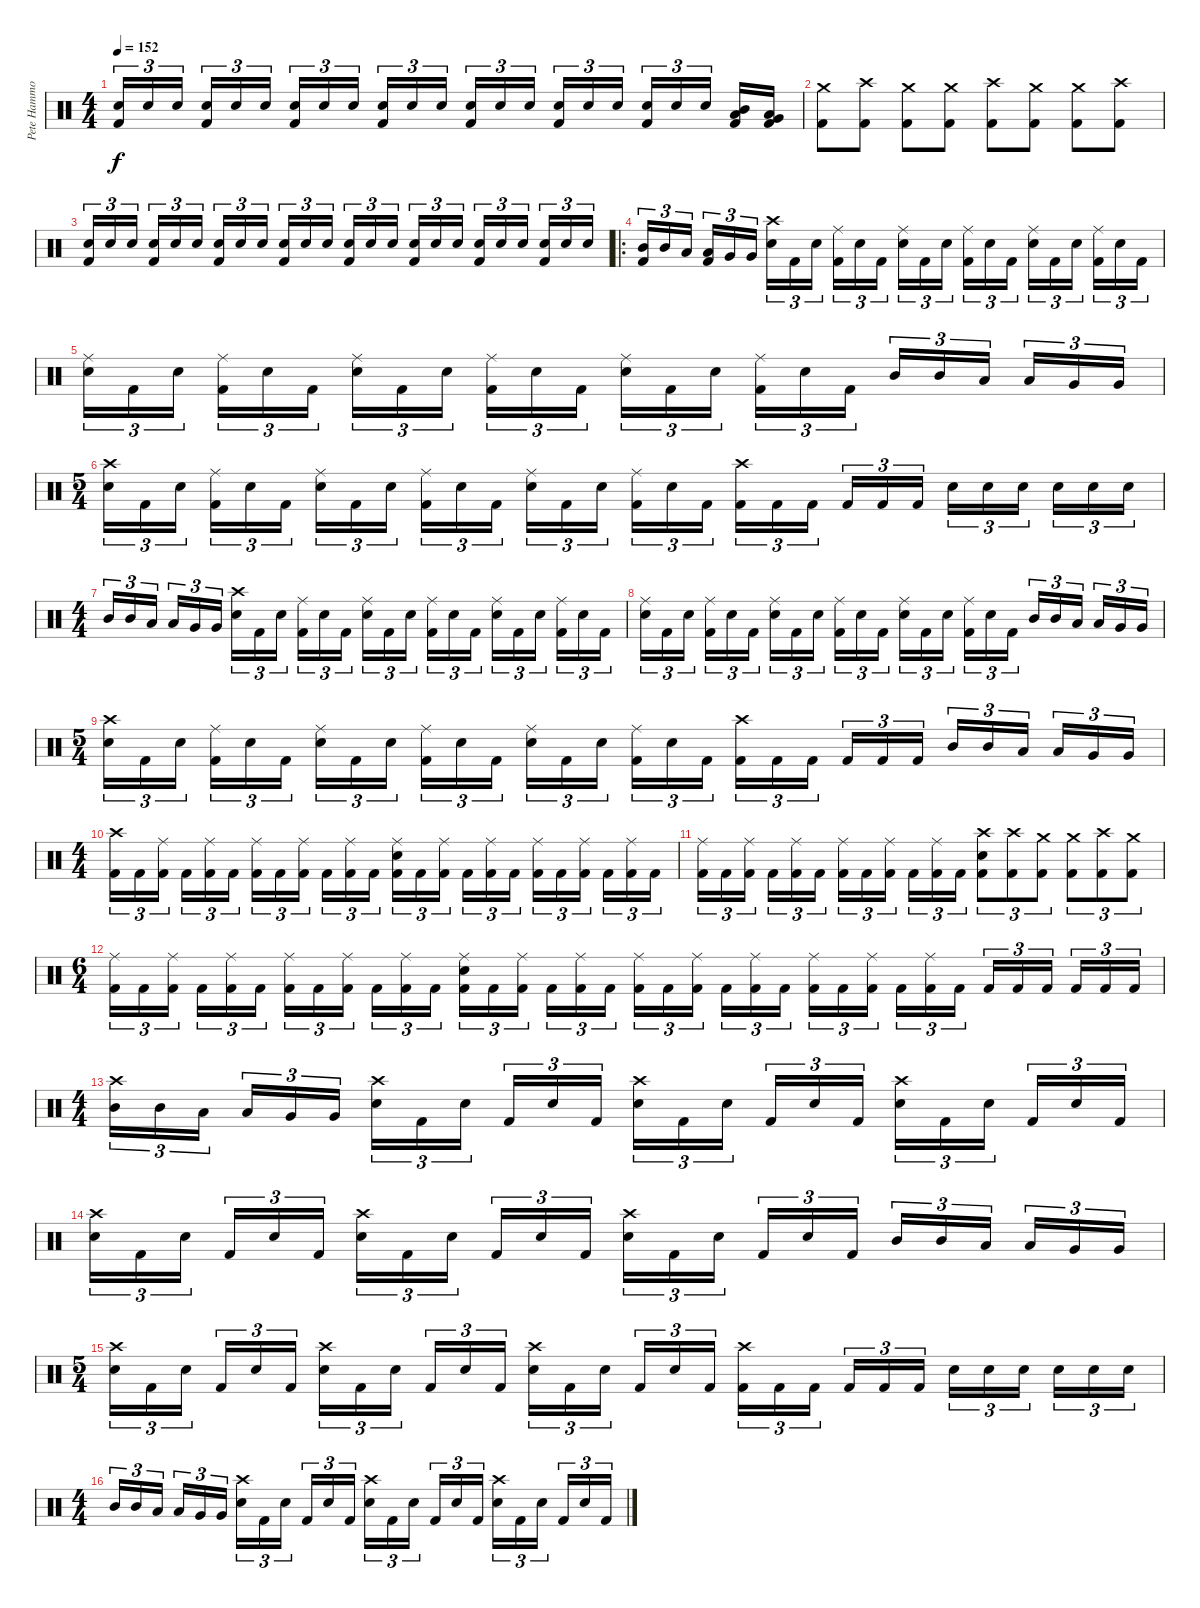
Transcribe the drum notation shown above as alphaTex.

\track ("Pete Hammoura" "Pete Hammo") {instrument percussion}
\staff {score}
\articulation defaults
\ts (4 4)
\tempo 152
\clef neutral
\ks c
("Electric Snare (hit)" "Kick (hit) 2").16{tu (3 2) dy f} "Electric Snare (hit)".16{tu (3 2)} "Electric Snare (hit)".16{tu (3 2)} ("Electric Snare (hit)" "Kick (hit) 2").16{tu (3 2)} "Electric Snare (hit)".16{tu (3 2)} "Electric Snare (hit)".16{tu (3 2)} ("Electric Snare (hit)" "Kick (hit) 2").16{tu (3 2)} "Electric Snare (hit)".16{tu (3 2)} "Electric Snare (hit)".16{tu (3 2)} ("Electric Snare (hit)" "Kick (hit) 2").16{tu (3 2)} "Electric Snare (hit)".16{tu (3 2)} "Electric Snare (hit)".16{tu (3 2)} ("Electric Snare (hit)" "Kick (hit) 2").16{tu (3 2)} "Electric Snare (hit)".16{tu (3 2)} "Electric Snare (hit)".16{tu (3 2)} ("Electric Snare (hit)" "Kick (hit) 2").16{tu (3 2)} "Electric Snare (hit)".16{tu (3 2)} "Electric Snare (hit)".16{tu (3 2)} ("Electric Snare (hit)" "Kick (hit) 2").16{tu (3 2)} "Electric Snare (hit)".16{tu (3 2)} "Electric Snare (hit)".16{tu (3 2)} ("Mid Tom (hit)" "Low Tom (hit)" "Kick (hit) 2").16 ("Low Tom (hit)" "Very Low Tom (hit)" "Kick (hit) 2").16 |
("Crash medium (hit)" "Kick (hit) 2").8 ("Crash high (hit)" "Kick (hit) 2").8 ("Crash medium (hit)" "Kick (hit) 2").8 ("Crash medium (hit)" "Kick (hit) 2").8 ("Crash high (hit)" "Kick (hit) 2").8 ("Crash medium (hit)" "Kick (hit) 2").8 ("Crash medium (hit)" "Kick (hit) 2").8 ("Crash high (hit)" "Kick (hit) 2").8 |
("Electric Snare (hit)" "Kick (hit) 2").16{tu (3 2)} "Electric Snare (hit)".16{tu (3 2)} "Electric Snare (hit)".16{tu (3 2)} ("Electric Snare (hit)" "Kick (hit) 2").16{tu (3 2)} "Electric Snare (hit)".16{tu (3 2)} "Electric Snare (hit)".16{tu (3 2)} ("Electric Snare (hit)" "Kick (hit) 2").16{tu (3 2)} "Electric Snare (hit)".16{tu (3 2)} "Electric Snare (hit)".16{tu (3 2)} ("Electric Snare (hit)" "Kick (hit) 2").16{tu (3 2)} "Electric Snare (hit)".16{tu (3 2)} "Electric Snare (hit)".16{tu (3 2)} ("Electric Snare (hit)" "Kick (hit) 2").16{tu (3 2)} "Electric Snare (hit)".16{tu (3 2)} "Electric Snare (hit)".16{tu (3 2)} ("Electric Snare (hit)" "Kick (hit) 2").16{tu (3 2)} "Electric Snare (hit)".16{tu (3 2)} "Electric Snare (hit)".16{tu (3 2)} ("Electric Snare (hit)" "Kick (hit) 2").16{tu (3 2)} "Electric Snare (hit)".16{tu (3 2)} "Electric Snare (hit)".16{tu (3 2)} ("Electric Snare (hit)" "Kick (hit) 2").16{tu (3 2)} "Electric Snare (hit)".16{tu (3 2)} "Electric Snare (hit)".16{tu (3 2)} |
\ro
("Mid Tom (hit)" "Kick (hit) 2").16{tu (3 2)} "Mid Tom (hit)".16{tu (3 2)} "Low Tom (hit)".16{tu (3 2)} ("Low Tom (hit)" "Kick (hit) 2").16{tu (3 2)} "Very Low Tom (hit)".16{tu (3 2)} "Very Low Tom (hit)".16{tu (3 2)} ("Crash high (hit)" "Electric Snare (hit)").16{tu (3 2)} "Kick (hit) 2".16{tu (3 2)} "Electric Snare (hit)".16{tu (3 2)} ("Ride (middle)" "Kick (hit) 2").16{tu (3 2)} "Electric Snare (hit)".16{tu (3 2)} "Kick (hit) 2".16{tu (3 2)} ("Ride (middle)" "Electric Snare (hit)").16{tu (3 2)} "Kick (hit) 2".16{tu (3 2)} "Electric Snare (hit)".16{tu (3 2)} ("Ride (middle)" "Kick (hit) 2").16{tu (3 2)} "Electric Snare (hit)".16{tu (3 2)} "Kick (hit) 2".16{tu (3 2)} ("Ride (middle)" "Electric Snare (hit)").16{tu (3 2)} "Kick (hit) 2".16{tu (3 2)} "Electric Snare (hit)".16{tu (3 2)} ("Ride (middle)" "Kick (hit) 2").16{tu (3 2)} "Electric Snare (hit)".16{tu (3 2)} "Kick (hit) 2".16{tu (3 2)} |
("Ride (middle)" "Electric Snare (hit)").16{tu (3 2)} "Kick (hit) 2".16{tu (3 2)} "Electric Snare (hit)".16{tu (3 2)} ("Ride (middle)" "Kick (hit) 2").16{tu (3 2)} "Electric Snare (hit)".16{tu (3 2)} "Kick (hit) 2".16{tu (3 2)} ("Ride (middle)" "Electric Snare (hit)").16{tu (3 2)} "Kick (hit) 2".16{tu (3 2)} "Electric Snare (hit)".16{tu (3 2)} ("Ride (middle)" "Kick (hit) 2").16{tu (3 2)} "Electric Snare (hit)".16{tu (3 2)} "Kick (hit) 2".16{tu (3 2)} ("Ride (middle)" "Electric Snare (hit)").16{tu (3 2)} "Kick (hit) 2".16{tu (3 2)} "Electric Snare (hit)".16{tu (3 2)} ("Ride (middle)" "Kick (hit) 2").16{tu (3 2)} "Electric Snare (hit)".16{tu (3 2)} "Kick (hit) 2".16{tu (3 2)} "Mid Tom (hit)".16{tu (3 2)} "Mid Tom (hit)".16{tu (3 2)} "Low Tom (hit)".16{tu (3 2)} "Low Tom (hit)".16{tu (3 2)} "Very Low Tom (hit)".16{tu (3 2)} "Very Low Tom (hit)".16{tu (3 2)} |
\ts (5 4)
("Crash high (hit)" "Electric Snare (hit)").16{tu (3 2)} "Kick (hit) 2".16{tu (3 2)} "Electric Snare (hit)".16{tu (3 2)} ("Ride (middle)" "Kick (hit) 2").16{tu (3 2)} "Electric Snare (hit)".16{tu (3 2)} "Kick (hit) 2".16{tu (3 2)} ("Ride (middle)" "Electric Snare (hit)").16{tu (3 2)} "Kick (hit) 2".16{tu (3 2)} "Electric Snare (hit)".16{tu (3 2)} ("Ride (middle)" "Kick (hit) 2").16{tu (3 2)} "Electric Snare (hit)".16{tu (3 2)} "Kick (hit) 2".16{tu (3 2)} ("Ride (middle)" "Electric Snare (hit)").16{tu (3 2)} "Kick (hit) 2".16{tu (3 2)} "Electric Snare (hit)".16{tu (3 2)} ("Ride (middle)" "Kick (hit) 2").16{tu (3 2)} "Electric Snare (hit)".16{tu (3 2)} "Kick (hit) 2".16{tu (3 2)} ("Crash high (hit)" "Kick (hit) 2").16{tu (3 2)} "Kick (hit) 2".16{tu (3 2)} "Kick (hit) 2".16{tu (3 2)} "Kick (hit) 2".16{tu (3 2)} "Kick (hit) 2".16{tu (3 2)} "Kick (hit) 2".16{tu (3 2)} "Electric Snare (hit)".16{tu (3 2)} "Electric Snare (hit)".16{tu (3 2)} "Electric Snare (hit)".16{tu (3 2)} "Electric Snare (hit)".16{tu (3 2)} "Electric Snare (hit)".16{tu (3 2)} "Electric Snare (hit)".16{tu (3 2)} |
\ts (4 4)
"Mid Tom (hit)".16{tu (3 2)} "Mid Tom (hit)".16{tu (3 2)} "Low Tom (hit)".16{tu (3 2)} "Low Tom (hit)".16{tu (3 2)} "Very Low Tom (hit)".16{tu (3 2)} "Very Low Tom (hit)".16{tu (3 2)} ("Crash high (hit)" "Electric Snare (hit)").16{tu (3 2)} "Kick (hit) 2".16{tu (3 2)} "Electric Snare (hit)".16{tu (3 2)} ("Ride (middle)" "Kick (hit) 2").16{tu (3 2)} "Electric Snare (hit)".16{tu (3 2)} "Kick (hit) 2".16{tu (3 2)} ("Ride (middle)" "Electric Snare (hit)").16{tu (3 2)} "Kick (hit) 2".16{tu (3 2)} "Electric Snare (hit)".16{tu (3 2)} ("Ride (middle)" "Kick (hit) 2").16{tu (3 2)} "Electric Snare (hit)".16{tu (3 2)} "Kick (hit) 2".16{tu (3 2)} ("Ride (middle)" "Electric Snare (hit)").16{tu (3 2)} "Kick (hit) 2".16{tu (3 2)} "Electric Snare (hit)".16{tu (3 2)} ("Ride (middle)" "Kick (hit) 2").16{tu (3 2)} "Electric Snare (hit)".16{tu (3 2)} "Kick (hit) 2".16{tu (3 2)} |
("Ride (middle)" "Electric Snare (hit)").16{tu (3 2)} "Kick (hit) 2".16{tu (3 2)} "Electric Snare (hit)".16{tu (3 2)} ("Ride (middle)" "Kick (hit) 2").16{tu (3 2)} "Electric Snare (hit)".16{tu (3 2)} "Kick (hit) 2".16{tu (3 2)} ("Ride (middle)" "Electric Snare (hit)").16{tu (3 2)} "Kick (hit) 2".16{tu (3 2)} "Electric Snare (hit)".16{tu (3 2)} ("Ride (middle)" "Kick (hit) 2").16{tu (3 2)} "Electric Snare (hit)".16{tu (3 2)} "Kick (hit) 2".16{tu (3 2)} ("Ride (middle)" "Electric Snare (hit)").16{tu (3 2)} "Kick (hit) 2".16{tu (3 2)} "Electric Snare (hit)".16{tu (3 2)} ("Ride (middle)" "Kick (hit) 2").16{tu (3 2)} "Electric Snare (hit)".16{tu (3 2)} "Kick (hit) 2".16{tu (3 2)} "Mid Tom (hit)".16{tu (3 2)} "Mid Tom (hit)".16{tu (3 2)} "Low Tom (hit)".16{tu (3 2)} "Low Tom (hit)".16{tu (3 2)} "Very Low Tom (hit)".16{tu (3 2)} "Very Low Tom (hit)".16{tu (3 2)} |
\ts (5 4)
("Crash high (hit)" "Electric Snare (hit)").16{tu (3 2)} "Kick (hit) 2".16{tu (3 2)} "Electric Snare (hit)".16{tu (3 2)} ("Ride (middle)" "Kick (hit) 2").16{tu (3 2)} "Electric Snare (hit)".16{tu (3 2)} "Kick (hit) 2".16{tu (3 2)} ("Ride (middle)" "Electric Snare (hit)").16{tu (3 2)} "Kick (hit) 2".16{tu (3 2)} "Electric Snare (hit)".16{tu (3 2)} ("Ride (middle)" "Kick (hit) 2").16{tu (3 2)} "Electric Snare (hit)".16{tu (3 2)} "Kick (hit) 2".16{tu (3 2)} ("Ride (middle)" "Electric Snare (hit)").16{tu (3 2)} "Kick (hit) 2".16{tu (3 2)} "Electric Snare (hit)".16{tu (3 2)} ("Ride (middle)" "Kick (hit) 2").16{tu (3 2)} "Electric Snare (hit)".16{tu (3 2)} "Kick (hit) 2".16{tu (3 2)} ("Crash high (hit)" "Kick (hit) 2").16{tu (3 2)} "Kick (hit) 2".16{tu (3 2)} "Kick (hit) 2".16{tu (3 2)} "Kick (hit) 2".16{tu (3 2)} "Kick (hit) 2".16{tu (3 2)} "Kick (hit) 2".16{tu (3 2)} "Mid Tom (hit)".16{tu (3 2)} "Mid Tom (hit)".16{tu (3 2)} "Low Tom (hit)".16{tu (3 2)} "Low Tom (hit)".16{tu (3 2)} "Very Low Tom (hit)".16{tu (3 2)} "Very Low Tom (hit)".16{tu (3 2)} |
\ts (4 4)
("Crash high (hit)" "Kick (hit) 2").16{tu (3 2)} "Kick (hit) 2".16{tu (3 2)} ("Ride (middle)" "Kick (hit) 2").16{tu (3 2)} "Kick (hit) 2".16{tu (3 2)} ("Ride (middle)" "Kick (hit) 2").16{tu (3 2)} "Kick (hit) 2".16{tu (3 2)} ("Ride (middle)" "Kick (hit) 2").16{tu (3 2)} "Kick (hit) 2".16{tu (3 2)} ("Ride (middle)" "Kick (hit) 2").16{tu (3 2)} "Kick (hit) 2".16{tu (3 2)} ("Ride (middle)" "Kick (hit) 2").16{tu (3 2)} "Kick (hit) 2".16{tu (3 2)} ("Ride (middle)" "Electric Snare (hit)" "Kick (hit) 2").16{tu (3 2)} "Kick (hit) 2".16{tu (3 2)} ("Ride (middle)" "Kick (hit) 2").16{tu (3 2)} "Kick (hit) 2".16{tu (3 2)} ("Ride (middle)" "Kick (hit) 2").16{tu (3 2)} "Kick (hit) 2".16{tu (3 2)} ("Ride (middle)" "Kick (hit) 2").16{tu (3 2)} "Kick (hit) 2".16{tu (3 2)} ("Ride (middle)" "Kick (hit) 2").16{tu (3 2)} "Kick (hit) 2".16{tu (3 2)} ("Ride (middle)" "Kick (hit) 2").16{tu (3 2)} "Kick (hit) 2".16{tu (3 2)} |
("Ride (middle)" "Kick (hit) 2").16{tu (3 2)} "Kick (hit) 2".16{tu (3 2)} ("Ride (middle)" "Kick (hit) 2").16{tu (3 2)} "Kick (hit) 2".16{tu (3 2)} ("Ride (middle)" "Kick (hit) 2").16{tu (3 2)} "Kick (hit) 2".16{tu (3 2)} ("Ride (middle)" "Kick (hit) 2").16{tu (3 2)} "Kick (hit) 2".16{tu (3 2)} ("Ride (middle)" "Kick (hit) 2").16{tu (3 2)} "Kick (hit) 2".16{tu (3 2)} ("Ride (middle)" "Kick (hit) 2").16{tu (3 2)} "Kick (hit) 2".16{tu (3 2)} ("Crash high (hit)" "Electric Snare (hit)" "Kick (hit) 2").8{tu (3 2)} ("Crash high (hit)" "Kick (hit) 2").8{tu (3 2)} ("Crash medium (hit)" "Kick (hit) 2").8{tu (3 2)} ("Crash medium (hit)" "Kick (hit) 2").8{tu (3 2)} ("Crash high (hit)" "Kick (hit) 2").8{tu (3 2)} ("Crash medium (hit)" "Kick (hit) 2").8{tu (3 2)} |
\ts (6 4)
("Ride (middle)" "Kick (hit) 2").16{tu (3 2)} "Kick (hit) 2".16{tu (3 2)} ("Ride (middle)" "Kick (hit) 2").16{tu (3 2)} "Kick (hit) 2".16{tu (3 2)} ("Ride (middle)" "Kick (hit) 2").16{tu (3 2)} "Kick (hit) 2".16{tu (3 2)} ("Ride (middle)" "Kick (hit) 2").16{tu (3 2)} "Kick (hit) 2".16{tu (3 2)} ("Ride (middle)" "Kick (hit) 2").16{tu (3 2)} "Kick (hit) 2".16{tu (3 2)} ("Ride (middle)" "Kick (hit) 2").16{tu (3 2)} "Kick (hit) 2".16{tu (3 2)} ("Ride (middle)" "Electric Snare (hit)" "Kick (hit) 2").16{tu (3 2)} "Kick (hit) 2".16{tu (3 2)} ("Ride (middle)" "Kick (hit) 2").16{tu (3 2)} "Kick (hit) 2".16{tu (3 2)} ("Ride (middle)" "Kick (hit) 2").16{tu (3 2)} "Kick (hit) 2".16{tu (3 2)} ("Ride (middle)" "Kick (hit) 2").16{tu (3 2)} "Kick (hit) 2".16{tu (3 2)} ("Ride (middle)" "Kick (hit) 2").16{tu (3 2)} "Kick (hit) 2".16{tu (3 2)} ("Ride (middle)" "Kick (hit) 2").16{tu (3 2)} "Kick (hit) 2".16{tu (3 2)} ("Ride (middle)" "Kick (hit) 2").16{tu (3 2)} "Kick (hit) 2".16{tu (3 2)} ("Ride (middle)" "Kick (hit) 2").16{tu (3 2)} "Kick (hit) 2".16{tu (3 2)} ("Ride (middle)" "Kick (hit) 2").16{tu (3 2)} "Kick (hit) 2".16{tu (3 2)} "Kick (hit) 2".16{tu (3 2)} "Kick (hit) 2".16{tu (3 2)} "Kick (hit) 2".16{tu (3 2)} "Kick (hit) 2".16{tu (3 2)} "Kick (hit) 2".16{tu (3 2)} "Kick (hit) 2".16{tu (3 2)} |
\ts (4 4)
("Crash high (hit)" "Mid Tom (hit)").16{tu (3 2)} "Mid Tom (hit)".16{tu (3 2)} "Low Tom (hit)".16{tu (3 2)} "Low Tom (hit)".16{tu (3 2)} "Very Low Tom (hit)".16{tu (3 2)} "Very Low Tom (hit)".16{tu (3 2)} ("Crash high (hit)" "Electric Snare (hit)").16{tu (3 2)} "Kick (hit) 2".16{tu (3 2)} "Electric Snare (hit)".16{tu (3 2)} "Kick (hit) 2".16{tu (3 2)} "Electric Snare (hit)".16{tu (3 2)} "Kick (hit) 2".16{tu (3 2)} ("Crash high (hit)" "Electric Snare (hit)").16{tu (3 2)} "Kick (hit) 2".16{tu (3 2)} "Electric Snare (hit)".16{tu (3 2)} "Kick (hit) 2".16{tu (3 2)} "Electric Snare (hit)".16{tu (3 2)} "Kick (hit) 2".16{tu (3 2)} ("Crash high (hit)" "Electric Snare (hit)").16{tu (3 2)} "Kick (hit) 2".16{tu (3 2)} "Electric Snare (hit)".16{tu (3 2)} "Kick (hit) 2".16{tu (3 2)} "Electric Snare (hit)".16{tu (3 2)} "Kick (hit) 2".16{tu (3 2)} |
("Crash high (hit)" "Electric Snare (hit)").16{tu (3 2)} "Kick (hit) 2".16{tu (3 2)} "Electric Snare (hit)".16{tu (3 2)} "Kick (hit) 2".16{tu (3 2)} "Electric Snare (hit)".16{tu (3 2)} "Kick (hit) 2".16{tu (3 2)} ("Crash high (hit)" "Electric Snare (hit)").16{tu (3 2)} "Kick (hit) 2".16{tu (3 2)} "Electric Snare (hit)".16{tu (3 2)} "Kick (hit) 2".16{tu (3 2)} "Electric Snare (hit)".16{tu (3 2)} "Kick (hit) 2".16{tu (3 2)} ("Crash high (hit)" "Electric Snare (hit)").16{tu (3 2)} "Kick (hit) 2".16{tu (3 2)} "Electric Snare (hit)".16{tu (3 2)} "Kick (hit) 2".16{tu (3 2)} "Electric Snare (hit)".16{tu (3 2)} "Kick (hit) 2".16{tu (3 2)} "Mid Tom (hit)".16{tu (3 2)} "Mid Tom (hit)".16{tu (3 2)} "Low Tom (hit)".16{tu (3 2)} "Low Tom (hit)".16{tu (3 2)} "Very Low Tom (hit)".16{tu (3 2)} "Very Low Tom (hit)".16{tu (3 2)} |
\ts (5 4)
("Crash high (hit)" "Electric Snare (hit)").16{tu (3 2)} "Kick (hit) 2".16{tu (3 2)} "Electric Snare (hit)".16{tu (3 2)} "Kick (hit) 2".16{tu (3 2)} "Electric Snare (hit)".16{tu (3 2)} "Kick (hit) 2".16{tu (3 2)} ("Crash high (hit)" "Electric Snare (hit)").16{tu (3 2)} "Kick (hit) 2".16{tu (3 2)} "Electric Snare (hit)".16{tu (3 2)} "Kick (hit) 2".16{tu (3 2)} "Electric Snare (hit)".16{tu (3 2)} "Kick (hit) 2".16{tu (3 2)} ("Crash high (hit)" "Electric Snare (hit)").16{tu (3 2)} "Kick (hit) 2".16{tu (3 2)} "Electric Snare (hit)".16{tu (3 2)} "Kick (hit) 2".16{tu (3 2)} "Electric Snare (hit)".16{tu (3 2)} "Kick (hit) 2".16{tu (3 2)} ("Crash high (hit)" "Kick (hit) 2").16{tu (3 2)} "Kick (hit) 2".16{tu (3 2)} "Kick (hit) 2".16{tu (3 2)} "Kick (hit) 2".16{tu (3 2)} "Kick (hit) 2".16{tu (3 2)} "Kick (hit) 2".16{tu (3 2)} "Electric Snare (hit)".16{tu (3 2)} "Electric Snare (hit)".16{tu (3 2)} "Electric Snare (hit)".16{tu (3 2)} "Electric Snare (hit)".16{tu (3 2)} "Electric Snare (hit)".16{tu (3 2)} "Electric Snare (hit)".16{tu (3 2)} |
\ts (4 4)
"Mid Tom (hit)".16{tu (3 2)} "Mid Tom (hit)".16{tu (3 2)} "Low Tom (hit)".16{tu (3 2)} "Low Tom (hit)".16{tu (3 2)} "Very Low Tom (hit)".16{tu (3 2)} "Very Low Tom (hit)".16{tu (3 2)} ("Crash high (hit)" "Electric Snare (hit)").16{tu (3 2)} "Kick (hit) 2".16{tu (3 2)} "Electric Snare (hit)".16{tu (3 2)} "Kick (hit) 2".16{tu (3 2)} "Electric Snare (hit)".16{tu (3 2)} "Kick (hit) 2".16{tu (3 2)} ("Crash high (hit)" "Electric Snare (hit)").16{tu (3 2)} "Kick (hit) 2".16{tu (3 2)} "Electric Snare (hit)".16{tu (3 2)} "Kick (hit) 2".16{tu (3 2)} "Electric Snare (hit)".16{tu (3 2)} "Kick (hit) 2".16{tu (3 2)} ("Crash high (hit)" "Electric Snare (hit)").16{tu (3 2)} "Kick (hit) 2".16{tu (3 2)} "Electric Snare (hit)".16{tu (3 2)} "Kick (hit) 2".16{tu (3 2)} "Electric Snare (hit)".16{tu (3 2)} "Kick (hit) 2".16{tu (3 2)}
